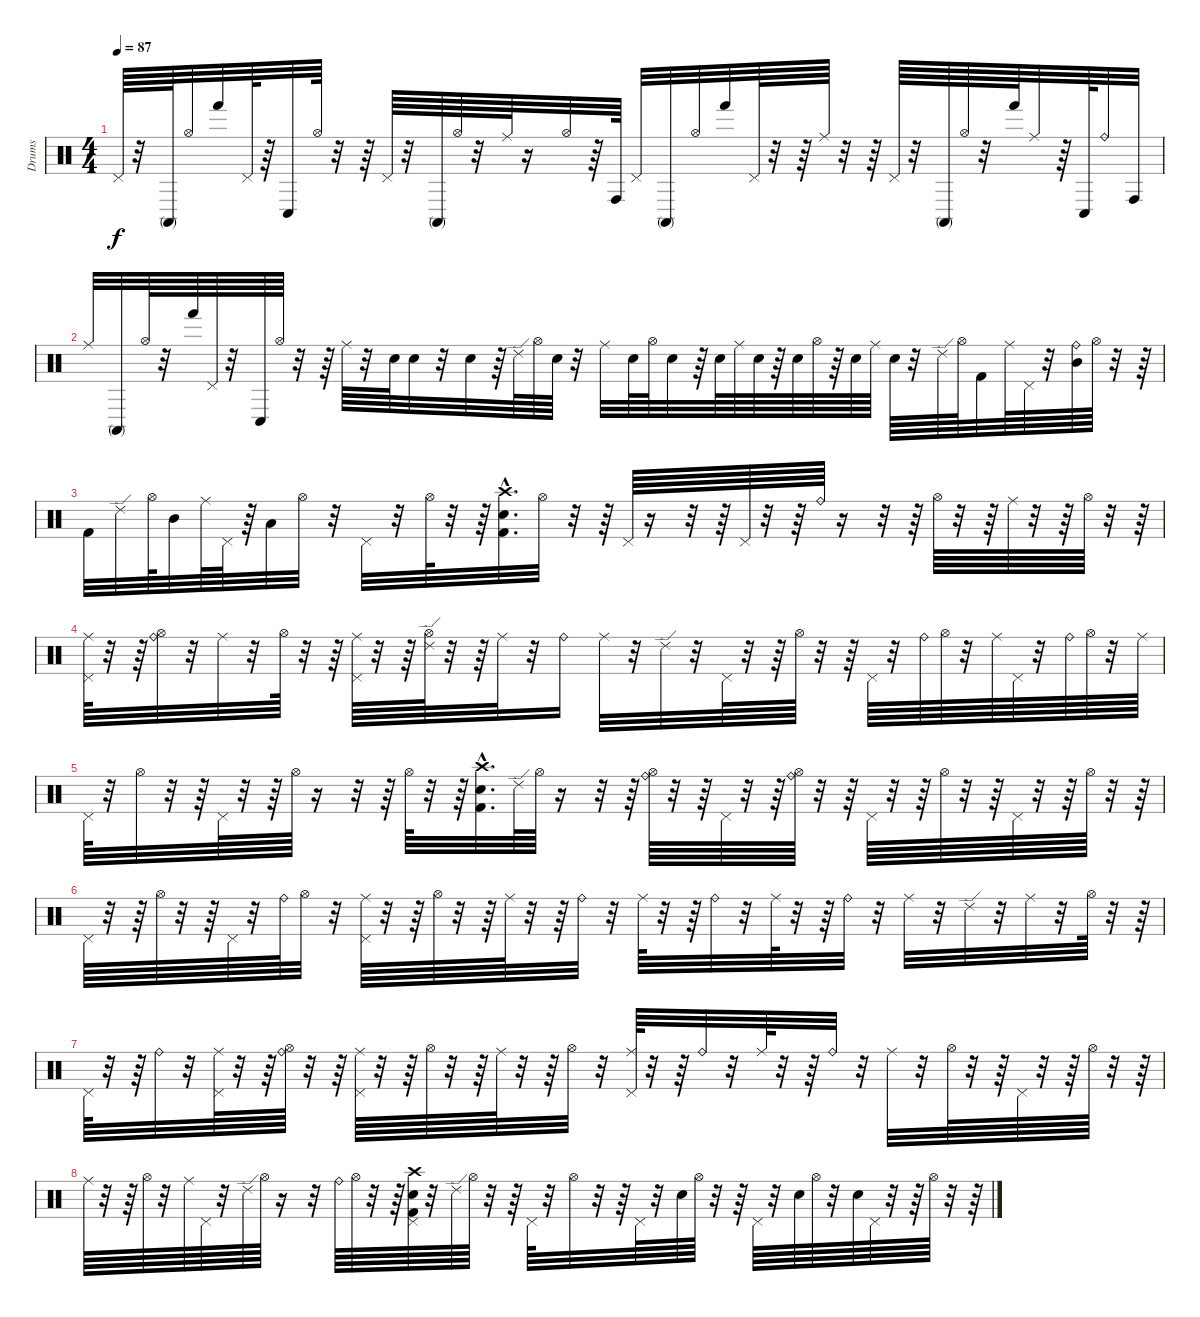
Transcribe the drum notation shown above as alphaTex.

\track ("Drums" "Drums") {instrument percussion}
\staff {score}
\articulation defaults
\ts (4 4)
\tempo 87
\clef neutral
\ks c "Pedal Hi-Hat (hit)".64{dy f}
r.32 "Conga high (mute)".64 "Hi-Hat (open)".32 "Hand (hit)".32 "Pedal Hi-Hat (hit)".64 r.64 "Conga low (hit)".32 "Hi-Hat (open)".64 r.32 r.64 "Pedal Hi-Hat (hit)".64 r.32 "Conga high (mute)".64 "Hi-Hat (open)".64 r.32 "Ride (middle)".64 r.16 "Hi-Hat (open)".32 r.64 "Conga high (hit)".64 "Pedal Hi-Hat (hit)".32 "Conga high (mute)".32 "Hi-Hat (open)".32 "Hand (hit)".32 "Pedal Hi-Hat (hit)".64 r.32 r.64 "Ride (middle)".64 r.32 r.64 "Pedal Hi-Hat (hit)".64 r.32 "Conga high (mute)".64 "Hi-Hat (open)".64 r.32 "Hand (hit)".64 "Ride (middle)".32 r.64 "Conga low (hit)".64 "Ride (bell)".32 "Conga high (hit)".32 |
"Ride (middle)".32 "Conga high (mute)".32 "Hi-Hat (open)".64 r.32 "Hand (hit)".64 "Pedal Hi-Hat (hit)".64 r.32 "Conga low (hit)".64 "Hi-Hat (open)".64 r.32 r.64 "Ride (middle)".64 r.32 "Electric Snare (hit)".64 "Electric Snare (hit)".32 r.32 "Electric Snare (hit)".32 r.64 "Ride (edge) 2".64 "Hi-Hat (open)".64 "Electric Snare (hit)".64 r.32 "Ride (middle)".32 "Electric Snare (hit)".64 "Hi-Hat (open)".64 "Electric Snare (hit)".32 r.64 "Electric Snare (hit)".64 "Ride (middle)".64 "Electric Snare (hit)".64 r.64 "Electric Snare (hit)".64 "Hi-Hat (open)".64 r.64 "Electric Snare (hit)".64 "Ride (middle)".64 "Electric Snare (hit)".64 r.32 "Ride (edge) 2".64 "Hi-Hat (open)".64 "Kick (hit) 2".32 "Ride (middle)".64 "Pedal Hi-Hat (hit)".64 r.32 ("Mid Tom (hit)" "Ride (bell)").64 "Hi-Hat (open)".64 r.32 r.64 |
"Kick (hit) 2".32 "Ride (edge) 2".32 "Hi-Hat (open)".64 "Mid Tom (hit)".32 "Ride (middle)".64 "Pedal Hi-Hat (hit)".64 r.64 "Low Tom (hit)".32 "Hi-Hat (open)".32 r.32 "Pedal Hi-Hat (hit)".32 r.32 "Hi-Hat (open)".64 r.32 r.64 ("Electric Snare (hit)"{hac} "Kick (hit) 2"{hac} "Crash high (hit)"{hac}).32{d} "Hi-Hat (open)".32 r.32 r.64 "Pedal Hi-Hat (hit)".64 r.16 r.32 r.64 "Pedal Hi-Hat (hit)".64 r.32 r.64 "Ride (bell)".64 r.16 r.32 r.64 "Hi-Hat (open)".64 r.32 r.64 "Ride (middle)".64 r.32 r.64 "Hi-Hat (open)".64 r.32 r.64 |
("Pedal Hi-Hat (hit)" "Ride (middle)").64 r.32 r.64 ("Hi-Hat (open)" "Ride (bell)").32 r.32 "Ride (middle)".32 r.32 "Hi-Hat (open)".64 r.32 r.64 ("Pedal Hi-Hat (hit)" "Ride (middle)").64 r.32 r.64 ("Hi-Hat (open)" "Ride (edge) 2").64 r.32 r.64 "Ride (middle)".32 r.32 "Ride (bell)".16 "Ride (middle)".32 r.32 "Ride (edge) 2".32 r.32 "Pedal Hi-Hat (hit)".64 r.32 r.64 "Hi-Hat (open)".64 r.32 r.64 "Pedal Hi-Hat (hit)".64 r.32 "Ride (bell)".64 "Hi-Hat (open)".64 r.32 "Ride (middle)".64 "Pedal Hi-Hat (hit)".64 r.32 "Ride (bell)".64 "Hi-Hat (open)".64 r.32 "Ride (middle)".64 |
"Pedal Hi-Hat (hit)".64 r.32 "Hi-Hat (open)".32 r.32 r.64 "Pedal Hi-Hat (hit)".64 r.32 r.64 "Hi-Hat (open)".64 r.16 r.32 r.64 "Hi-Hat (open)".64 r.32 r.64 ("Electric Snare (hit)"{hac} "Kick (hit) 2"{hac} "Crash high (hit)"{hac}).32{d} "Ride (edge) 2".64 "Hi-Hat (open)".64 r.16 r.32 r.64 ("Hi-Hat (open)" "Ride (bell)").64 r.32 r.64 "Pedal Hi-Hat (hit)".64 r.32 r.64 ("Hi-Hat (open)" "Ride (bell)").64 r.32 r.64 "Pedal Hi-Hat (hit)".64 r.32 r.64 "Hi-Hat (open)".64 r.32 r.64 "Pedal Hi-Hat (hit)".64 r.32 r.64 "Hi-Hat (open)".64 r.32 r.64 |
"Pedal Hi-Hat (hit)".64 r.32 r.64 "Hi-Hat (open)".64 r.32 r.64 "Pedal Hi-Hat (hit)".64 r.32 "Ride (bell)".64 "Hi-Hat (open)".32 r.32 ("Pedal Hi-Hat (hit)" "Ride (middle)").64 r.32 r.64 "Hi-Hat (open)".64 r.32 r.64 "Ride (middle)".64 r.32 r.64 "Ride (bell)".32 r.32 "Ride (middle)".64 r.32 r.64 "Ride (bell)".32 r.32 "Ride (middle)".64 r.32 r.64 "Ride (bell)".32 r.32 "Ride (middle)".32 r.32 "Ride (edge) 2".32 r.32 "Ride (middle)".32 r.32 "Hi-Hat (open)".64 r.32 r.64 |
"Pedal Hi-Hat (hit)".64 r.32 r.64 "Ride (bell)".32 r.32 ("Pedal Hi-Hat (hit)" "Ride (middle)").64 r.32 r.64 ("Hi-Hat (open)" "Ride (bell)").64 r.32 r.64 ("Pedal Hi-Hat (hit)" "Ride (middle)").64 r.32 r.64 "Hi-Hat (open)".64 r.32 r.64 "Ride (middle)".64 r.32 r.64 "Hi-Hat (open)".32 r.32 ("Pedal Hi-Hat (hit)" "Ride (middle)").64 r.32 r.64 "Ride (bell)".32 r.32 "Ride (middle)".64 r.32 r.64 "Ride (bell)".32 r.32 "Ride (middle)".32 r.32 "Hi-Hat (open)".64 r.32 r.64 "Pedal Hi-Hat (hit)".64 r.32 r.64 "Hi-Hat (open)".64 r.32 r.64 |
"Ride (middle)".64 r.32 r.64 "Hi-Hat (open)".64 r.32 "Ride (middle)".64 "Pedal Hi-Hat (hit)".64 r.32 "Ride (edge) 2".64 "Hi-Hat (open)".64 r.16 r.32 "Ride (bell)".64 "Hi-Hat (open)".64 r.32 r.64 ("Electric Snare (hit)" "Kick (hit) 2" "Crash high (hit)" "Pedal Hi-Hat (hit)").64 r.32 "Ride (edge) 2".64 "Hi-Hat (open)".64 r.32 r.64 "Pedal Hi-Hat (hit)".64 r.32 "Hi-Hat (open)".32 r.32 r.64 "Pedal Hi-Hat (hit)".64 r.32 "Electric Snare (hit)".64 "Hi-Hat (open)".64 r.32 r.64 "Pedal Hi-Hat (hit)".64 r.32 "Electric Snare (hit)".64 "Hi-Hat (open)".64 r.32 "Electric Snare (hit)".64 "Pedal Hi-Hat (hit)".64 r.32 r.64 "Hi-Hat (open)".64 r.32 r.64
